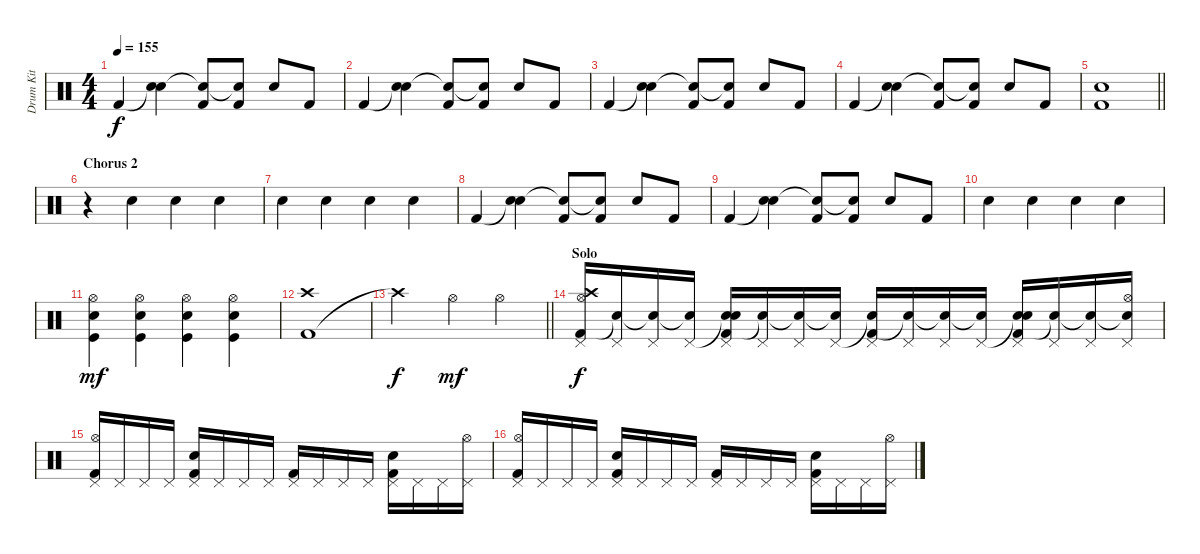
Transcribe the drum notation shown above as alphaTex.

\track ("Drum Kit" "Drum Kit") {instrument percussion}
\staff {score}
\articulation defaults
\ts (4 4)
\tempo 155
\clef neutral
\ks c "Kick (hit) 2".4{dy f}
("Snare (hit)"{t} "Snare (hit) 2").4 ("Kick (hit) 2" "Snare (hit)"{t}).8 ("Kick (hit) 2" "Snare (hit)"{t}).8 "Snare (hit) 2".8 "Kick (hit) 2".8 |
"Kick (hit) 2".4 ("Snare (hit)"{t} "Snare (hit) 2").4 ("Kick (hit) 2" "Snare (hit)"{t}).8 ("Kick (hit) 2" "Snare (hit)"{t}).8 "Snare (hit) 2".8 "Kick (hit) 2".8 |
"Kick (hit) 2".4 ("Snare (hit)"{t} "Snare (hit) 2").4 ("Kick (hit) 2" "Snare (hit)"{t}).8 ("Kick (hit) 2" "Snare (hit)"{t}).8 "Snare (hit) 2".8 "Kick (hit) 2".8 |
"Kick (hit) 2".4 ("Snare (hit)"{t} "Snare (hit) 2").4 ("Kick (hit) 2" "Snare (hit)"{t}).8 ("Kick (hit) 2" "Snare (hit)"{t}).8 "Snare (hit) 2".8 "Kick (hit) 2".8 |
\barLineRight lightlight
("Kick (hit) 2" "Electric Snare (hit)").1 |
\section ("" "Chorus 2")
r.4 "Snare (hit) 2".4 "Snare (hit) 2".4 "Snare (hit) 2".4 |
"Snare (hit) 2".4 "Snare (hit) 2".4 "Snare (hit) 2".4 "Snare (hit) 2".4 |
"Kick (hit) 2".4 ("Snare (hit)"{t} "Snare (hit) 2").4 ("Kick (hit) 2" "Snare (hit)"{t}).8 ("Kick (hit) 2" "Snare (hit)"{t}).8 "Snare (hit) 2".8 "Kick (hit) 2".8 |
"Kick (hit) 2".4 ("Snare (hit)"{t} "Snare (hit) 2").4 ("Kick (hit) 2" "Snare (hit)"{t}).8 ("Kick (hit) 2" "Snare (hit)"{t}).8 "Snare (hit) 2".8 "Kick (hit) 2".8 |
"Snare (hit) 2".4 "Snare (hit) 2".4 "Snare (hit) 2".4 "Snare (hit) 2".4 |
("Kick (hit)" "Snare (hit) 2" "Hi-Hat (open)").4{dy mf} ("Kick (hit)" "Snare (hit) 2" "Hi-Hat (open)").4 ("Kick (hit)" "Snare (hit) 2" "Hi-Hat (open)").4 ("Kick (hit)" "Snare (hit) 2" "Hi-Hat (open)").4 |
("Kick (hit) 2" "Crash high (hit)").1 |
\barLineRight lightlight "Crash high (hit)"{t}.2{dy f} "Hi-Hat (open)".4{dy mf} "Hi-Hat (open)".4
|
\section ("" "Solo")
("Kick (hit) 2" "Crash high (hit)" "Hi-Hat (open)" "Pedal Hi-Hat (hit)").16{dy f} ("Snare (hit)"{t} "Pedal Hi-Hat (hit)").16 ("Snare (hit)"{t} "Pedal Hi-Hat (hit)").16 ("Snare (hit)"{t} "Pedal Hi-Hat (hit)").16 ("Kick (hit) 2" "Snare (hit)"{t} "Electric Snare (hit)" "Pedal Hi-Hat (hit)").16 ("Snare (hit)"{t} "Pedal Hi-Hat (hit)").16 ("Snare (hit)"{t} "Pedal Hi-Hat (hit)").16 ("Snare (hit)"{t} "Pedal Hi-Hat (hit)").16 ("Kick (hit) 2" "Snare (hit)"{t} "Pedal Hi-Hat (hit)").16 ("Snare (hit)"{t} "Pedal Hi-Hat (hit)").16 ("Snare (hit)"{t} "Pedal Hi-Hat (hit)").16 ("Snare (hit)"{t} "Pedal Hi-Hat (hit)").16 ("Kick (hit) 2" "Snare (hit)"{t} "Electric Snare (hit)" "Pedal Hi-Hat (hit)").16 ("Snare (hit)"{t} "Pedal Hi-Hat (hit)").16 ("Snare (hit)"{t} "Pedal Hi-Hat (hit)").16 ("Snare (hit)"{t} "Hi-Hat (open)" "Pedal Hi-Hat (hit)").16 |
("Kick (hit) 2" "Hi-Hat (open)" "Pedal Hi-Hat (hit)").16 "Pedal Hi-Hat (hit)".16 "Pedal Hi-Hat (hit)".16 "Pedal Hi-Hat (hit)".16 ("Kick (hit) 2" "Electric Snare (hit)" "Pedal Hi-Hat (hit)").16 "Pedal Hi-Hat (hit)".16 "Pedal Hi-Hat (hit)".16 "Pedal Hi-Hat (hit)".16 ("Kick (hit) 2" "Pedal Hi-Hat (hit)").16 "Pedal Hi-Hat (hit)".16 "Pedal Hi-Hat (hit)".16 "Pedal Hi-Hat (hit)".16 ("Kick (hit) 2" "Electric Snare (hit)" "Pedal Hi-Hat (hit)").16 "Pedal Hi-Hat (hit)".16 "Pedal Hi-Hat (hit)".16 ("Hi-Hat (open)" "Pedal Hi-Hat (hit)").16 |
("Kick (hit) 2" "Hi-Hat (open)" "Pedal Hi-Hat (hit)").16 "Pedal Hi-Hat (hit)".16 "Pedal Hi-Hat (hit)".16 "Pedal Hi-Hat (hit)".16 ("Kick (hit) 2" "Electric Snare (hit)" "Pedal Hi-Hat (hit)").16 "Pedal Hi-Hat (hit)".16 "Pedal Hi-Hat (hit)".16 "Pedal Hi-Hat (hit)".16 ("Kick (hit) 2" "Pedal Hi-Hat (hit)").16 "Pedal Hi-Hat (hit)".16 "Pedal Hi-Hat (hit)".16 "Pedal Hi-Hat (hit)".16 ("Kick (hit) 2" "Electric Snare (hit)" "Pedal Hi-Hat (hit)").16 "Pedal Hi-Hat (hit)".16 "Pedal Hi-Hat (hit)".16 ("Hi-Hat (open)" "Pedal Hi-Hat (hit)").16
